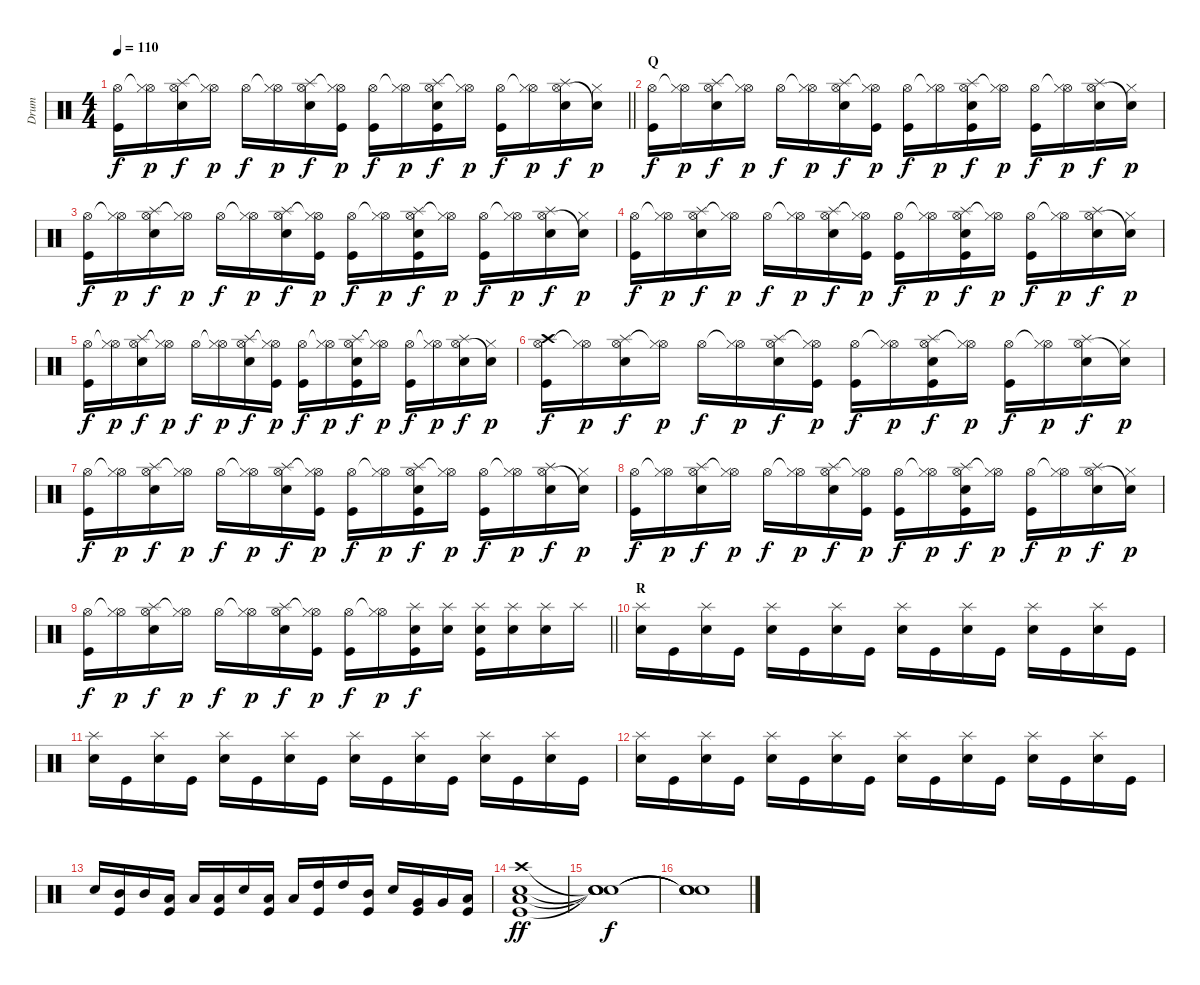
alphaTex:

\track ("Drum" "Drum") {instrument percussion}
\staff {score}
\articulation defaults
\ts (4 4)
\tempo 110
\clef neutral
\barLineRight lightlight
\ks c
("Hi-Hat (open)" "Kick (hit)").16{dy f} ("Hi-Hat (open)"{t} "Hi-Hat (closed)").16{dy p} ("Hi-Hat (open)" "Splash (hit)" "Snare (hit) 2").16{dy f} ("Hi-Hat (open)"{t} "Hi-Hat (closed)").16{dy p} "Hi-Hat (open)".16{dy f} ("Hi-Hat (open)"{t} "Hi-Hat (closed)").16{dy p} ("Hi-Hat (open)" "Splash (hit)" "Snare (hit) 2").16{dy f} ("Hi-Hat (open)"{t} "Hi-Hat (closed)" "Kick (hit)").16{dy p} ("Hi-Hat (open)" "Kick (hit)").16{dy f} ("Hi-Hat (open)"{t} "Hi-Hat (closed)").16{dy p} ("Hi-Hat (open)" "Splash (hit)" "Snare (hit) 2" "Kick (hit)").16{dy f} ("Hi-Hat (open)"{t} "Hi-Hat (closed)").16{dy p} ("Hi-Hat (open)" "Kick (hit)").16{dy f} ("Hi-Hat (open)"{t} "Hi-Hat (closed)").16{dy p} ("Hi-Hat (open)" "Splash (hit)" "Snare (hit) 2").16{dy f} ("Snare (hit)"{t} "Hi-Hat (closed)").16{dy p} |
\section ("" "Q")
("Hi-Hat (open)" "Kick (hit)").16{dy f} ("Hi-Hat (open)"{t} "Hi-Hat (closed)").16{dy p} ("Hi-Hat (open)" "Splash (hit)" "Snare (hit) 2").16{dy f} ("Hi-Hat (open)"{t} "Hi-Hat (closed)").16{dy p} "Hi-Hat (open)".16{dy f} ("Hi-Hat (open)"{t} "Hi-Hat (closed)").16{dy p} ("Hi-Hat (open)" "Splash (hit)" "Snare (hit) 2").16{dy f} ("Hi-Hat (open)"{t} "Hi-Hat (closed)" "Kick (hit)").16{dy p} ("Hi-Hat (open)" "Kick (hit)").16{dy f} ("Hi-Hat (open)"{t} "Hi-Hat (closed)").16{dy p} ("Hi-Hat (open)" "Splash (hit)" "Snare (hit) 2" "Kick (hit)").16{dy f} ("Hi-Hat (open)"{t} "Hi-Hat (closed)").16{dy p} ("Hi-Hat (open)" "Kick (hit)").16{dy f} ("Hi-Hat (open)"{t} "Hi-Hat (closed)").16{dy p} ("Hi-Hat (open)" "Splash (hit)" "Snare (hit) 2").16{dy f} ("Snare (hit)"{t} "Hi-Hat (closed)").16{dy p} |
("Hi-Hat (open)" "Kick (hit)").16{dy f} ("Hi-Hat (open)"{t} "Hi-Hat (closed)").16{dy p} ("Hi-Hat (open)" "Splash (hit)" "Snare (hit) 2").16{dy f} ("Hi-Hat (open)"{t} "Hi-Hat (closed)").16{dy p} "Hi-Hat (open)".16{dy f} ("Hi-Hat (open)"{t} "Hi-Hat (closed)").16{dy p} ("Hi-Hat (open)" "Splash (hit)" "Snare (hit) 2").16{dy f} ("Hi-Hat (open)"{t} "Hi-Hat (closed)" "Kick (hit)").16{dy p} ("Hi-Hat (open)" "Kick (hit)").16{dy f} ("Hi-Hat (open)"{t} "Hi-Hat (closed)").16{dy p} ("Hi-Hat (open)" "Splash (hit)" "Snare (hit) 2" "Kick (hit)").16{dy f} ("Hi-Hat (open)"{t} "Hi-Hat (closed)").16{dy p} ("Hi-Hat (open)" "Kick (hit)").16{dy f} ("Hi-Hat (open)"{t} "Hi-Hat (closed)").16{dy p} ("Hi-Hat (open)" "Splash (hit)" "Snare (hit) 2").16{dy f} ("Snare (hit)"{t} "Hi-Hat (closed)").16{dy p} |
("Hi-Hat (open)" "Kick (hit)").16{dy f} ("Hi-Hat (open)"{t} "Hi-Hat (closed)").16{dy p} ("Hi-Hat (open)" "Splash (hit)" "Snare (hit) 2").16{dy f} ("Hi-Hat (open)"{t} "Hi-Hat (closed)").16{dy p} "Hi-Hat (open)".16{dy f} ("Hi-Hat (open)"{t} "Hi-Hat (closed)").16{dy p} ("Hi-Hat (open)" "Splash (hit)" "Snare (hit) 2").16{dy f} ("Hi-Hat (open)"{t} "Hi-Hat (closed)" "Kick (hit)").16{dy p} ("Hi-Hat (open)" "Kick (hit)").16{dy f} ("Hi-Hat (open)"{t} "Hi-Hat (closed)").16{dy p} ("Hi-Hat (open)" "Splash (hit)" "Snare (hit) 2" "Kick (hit)").16{dy f} ("Hi-Hat (open)"{t} "Hi-Hat (closed)").16{dy p} ("Hi-Hat (open)" "Kick (hit)").16{dy f} ("Hi-Hat (open)"{t} "Hi-Hat (closed)").16{dy p} ("Hi-Hat (open)" "Splash (hit)" "Snare (hit) 2").16{dy f} ("Snare (hit)"{t} "Hi-Hat (closed)").16{dy p} |
("Hi-Hat (open)" "Kick (hit)").16{dy f} ("Hi-Hat (open)"{t} "Hi-Hat (closed)").16{dy p} ("Hi-Hat (open)" "Splash (hit)" "Snare (hit) 2").16{dy f} ("Hi-Hat (open)"{t} "Hi-Hat (closed)").16{dy p} "Hi-Hat (open)".16{dy f} ("Hi-Hat (open)"{t} "Hi-Hat (closed)").16{dy p} ("Hi-Hat (open)" "Splash (hit)" "Snare (hit) 2").16{dy f} ("Hi-Hat (open)"{t} "Hi-Hat (closed)" "Kick (hit)").16{dy p} ("Hi-Hat (open)" "Kick (hit)").16{dy f} ("Hi-Hat (open)"{t} "Hi-Hat (closed)").16{dy p} ("Hi-Hat (open)" "Splash (hit)" "Snare (hit) 2" "Kick (hit)").16{dy f} ("Hi-Hat (open)"{t} "Hi-Hat (closed)").16{dy p} ("Hi-Hat (open)" "Kick (hit)").16{dy f} ("Hi-Hat (open)"{t} "Hi-Hat (closed)").16{dy p} ("Hi-Hat (open)" "Splash (hit)" "Snare (hit) 2").16{dy f} ("Snare (hit)"{t} "Hi-Hat (closed)").16{dy p} |
("Hi-Hat (open)" "Crash high (hit)" "Kick (hit)").16{dy f} ("Hi-Hat (open)"{t} "Hi-Hat (closed)").16{dy p} ("Hi-Hat (open)" "Splash (hit)" "Snare (hit) 2").16{dy f} ("Hi-Hat (open)"{t} "Hi-Hat (closed)").16{dy p} "Hi-Hat (open)".16{dy f} ("Hi-Hat (open)"{t} "Hi-Hat (closed)").16{dy p} ("Hi-Hat (open)" "Splash (hit)" "Snare (hit) 2").16{dy f} ("Hi-Hat (open)"{t} "Hi-Hat (closed)" "Kick (hit)").16{dy p} ("Hi-Hat (open)" "Kick (hit)").16{dy f} ("Hi-Hat (open)"{t} "Hi-Hat (closed)").16{dy p} ("Hi-Hat (open)" "Splash (hit)" "Snare (hit) 2" "Kick (hit)").16{dy f} ("Hi-Hat (open)"{t} "Hi-Hat (closed)").16{dy p} ("Hi-Hat (open)" "Kick (hit)").16{dy f} ("Hi-Hat (open)"{t} "Hi-Hat (closed)").16{dy p} ("Hi-Hat (open)" "Splash (hit)" "Snare (hit) 2").16{dy f} ("Snare (hit)"{t} "Hi-Hat (closed)").16{dy p} |
("Hi-Hat (open)" "Kick (hit)").16{dy f} ("Hi-Hat (open)"{t} "Hi-Hat (closed)").16{dy p} ("Hi-Hat (open)" "Splash (hit)" "Snare (hit) 2").16{dy f} ("Hi-Hat (open)"{t} "Hi-Hat (closed)").16{dy p} "Hi-Hat (open)".16{dy f} ("Hi-Hat (open)"{t} "Hi-Hat (closed)").16{dy p} ("Hi-Hat (open)" "Splash (hit)" "Snare (hit) 2").16{dy f} ("Hi-Hat (open)"{t} "Hi-Hat (closed)" "Kick (hit)").16{dy p} ("Hi-Hat (open)" "Kick (hit)").16{dy f} ("Hi-Hat (open)"{t} "Hi-Hat (closed)").16{dy p} ("Hi-Hat (open)" "Splash (hit)" "Snare (hit) 2" "Kick (hit)").16{dy f} ("Hi-Hat (open)"{t} "Hi-Hat (closed)").16{dy p} ("Hi-Hat (open)" "Kick (hit)").16{dy f} ("Hi-Hat (open)"{t} "Hi-Hat (closed)").16{dy p} ("Hi-Hat (open)" "Splash (hit)" "Snare (hit) 2").16{dy f} ("Snare (hit)"{t} "Hi-Hat (closed)").16{dy p} |
("Hi-Hat (open)" "Kick (hit)").16{dy f} ("Hi-Hat (open)"{t} "Hi-Hat (closed)").16{dy p} ("Hi-Hat (open)" "Splash (hit)" "Snare (hit) 2").16{dy f} ("Hi-Hat (open)"{t} "Hi-Hat (closed)").16{dy p} "Hi-Hat (open)".16{dy f} ("Hi-Hat (open)"{t} "Hi-Hat (closed)").16{dy p} ("Hi-Hat (open)" "Splash (hit)" "Snare (hit) 2").16{dy f} ("Hi-Hat (open)"{t} "Hi-Hat (closed)" "Kick (hit)").16{dy p} ("Hi-Hat (open)" "Kick (hit)").16{dy f} ("Hi-Hat (open)"{t} "Hi-Hat (closed)").16{dy p} ("Hi-Hat (open)" "Splash (hit)" "Snare (hit) 2" "Kick (hit)").16{dy f} ("Hi-Hat (open)"{t} "Hi-Hat (closed)").16{dy p} ("Hi-Hat (open)" "Kick (hit)").16{dy f} ("Hi-Hat (open)"{t} "Hi-Hat (closed)").16{dy p} ("Hi-Hat (open)" "Splash (hit)" "Snare (hit) 2").16{dy f} ("Snare (hit)"{t} "Hi-Hat (closed)").16{dy p} |
\barLineRight lightlight
("Hi-Hat (open)" "Kick (hit)").16{dy f} ("Hi-Hat (open)"{t} "Hi-Hat (closed)").16{dy p} ("Hi-Hat (open)" "Splash (hit)" "Snare (hit) 2").16{dy f} ("Hi-Hat (open)"{t} "Hi-Hat (closed)").16{dy p} "Hi-Hat (open)".16{dy f} ("Hi-Hat (open)"{t} "Hi-Hat (closed)").16{dy p} ("Hi-Hat (open)" "Splash (hit)" "Snare (hit) 2").16{dy f} ("Hi-Hat (open)"{t} "Hi-Hat (closed)" "Kick (hit)").16{dy p} ("Hi-Hat (open)" "Kick (hit)").16{dy f} ("Hi-Hat (open)"{t} "Hi-Hat (closed)").16{dy p} ("Splash (hit)" "Snare (hit) 2" "Kick (hit)").16{dy f} ("Splash (hit)" "Snare (hit) 2").16 ("Splash (hit)" "Snare (hit) 2" "Kick (hit)").16 ("Splash (hit)" "Snare (hit) 2").16 ("Splash (hit)" "Snare (hit) 2").16 "Splash (hit)".16 |
\section ("" "R")
("Splash (hit)" "Snare (hit) 2").16 "Kick (hit)".16 ("Splash (hit)" "Snare (hit) 2").16 "Kick (hit)".16 ("Splash (hit)" "Snare (hit) 2").16 "Kick (hit)".16 ("Splash (hit)" "Snare (hit) 2").16 "Kick (hit)".16 ("Splash (hit)" "Snare (hit) 2").16 "Kick (hit)".16 ("Splash (hit)" "Snare (hit) 2").16 "Kick (hit)".16 ("Splash (hit)" "Snare (hit) 2").16 "Kick (hit)".16 ("Splash (hit)" "Snare (hit) 2").16 "Kick (hit)".16 |
("Splash (hit)" "Snare (hit) 2").16 "Kick (hit)".16 ("Splash (hit)" "Snare (hit) 2").16 "Kick (hit)".16 ("Splash (hit)" "Snare (hit) 2").16 "Kick (hit)".16 ("Splash (hit)" "Snare (hit) 2").16 "Kick (hit)".16 ("Splash (hit)" "Snare (hit) 2").16 "Kick (hit)".16 ("Splash (hit)" "Snare (hit) 2").16 "Kick (hit)".16 ("Splash (hit)" "Snare (hit) 2").16 "Kick (hit)".16 ("Splash (hit)" "Snare (hit) 2").16 "Kick (hit)".16 |
("Splash (hit)" "Snare (hit) 2").16 "Kick (hit)".16 ("Splash (hit)" "Snare (hit) 2").16 "Kick (hit)".16 ("Splash (hit)" "Snare (hit) 2").16 "Kick (hit)".16 ("Splash (hit)" "Snare (hit) 2").16 "Kick (hit)".16 ("Splash (hit)" "Snare (hit) 2").16 "Kick (hit)".16 ("Splash (hit)" "Snare (hit) 2").16 "Kick (hit)".16 ("Splash (hit)" "Snare (hit) 2").16 "Kick (hit)".16 ("Splash (hit)" "Snare (hit) 2").16 "Kick (hit)".16 |
"Snare (hit) 2".16 ("Mid Tom (hit)" "Kick (hit)").16 "Mid Tom (hit)".16 ("Low Tom (hit)" "Kick (hit)").16 "Low Tom (hit)".16 ("Low Tom (hit)" "Kick (hit)").16 "Snare (hit) 2".16 ("Low Tom (hit)" "Kick (hit)").16 "Low Tom (hit)".16 ("High Tom (hit)" "Kick (hit)").16 "High Tom (hit)".16 ("Mid Tom (hit)" "Kick (hit)").16 "Snare (hit) 2".16 ("Very Low Tom (hit)" "Kick (hit)").16 "Very Low Tom (hit)".16 ("Low Floor Tom (hit)" "Kick (hit)").16 |
("Crash high (hit)" "Snare (hit) 2" "Low Floor Tom (hit)" "Kick (hit)").1{dy ff} |
("Snare (hit)"{t} "Snare (hit)"{t} "Snare (hit)"{t} "Snare (hit)"{t}).1{dy f} |
("Snare (hit)"{t} "Snare (hit)"{t} "Snare (hit)"{t} "Snare (hit)"{t}).1
